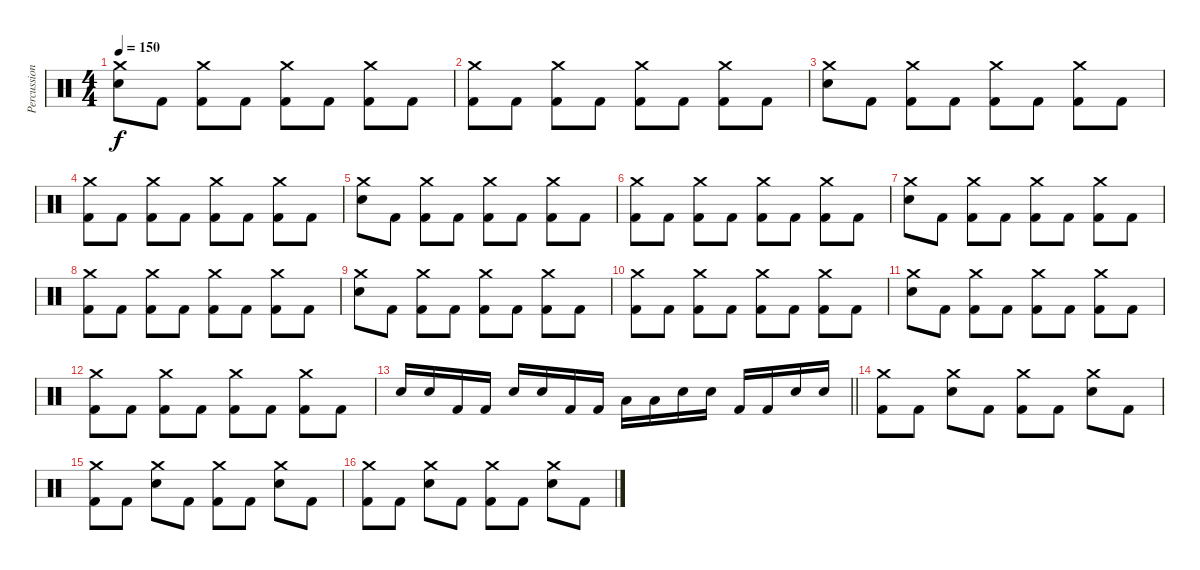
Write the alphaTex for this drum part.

\track ("Percussion" "Percussion") {instrument percussion}
\staff {score}
\articulation defaults
\ts (4 4)
\tempo 150
\clef neutral
\ks c
("Crash medium (hit)" "Electric Snare (hit)").8{dy f} "Kick (hit) 2".8 ("Crash medium (hit)" "Kick (hit) 2").8 "Kick (hit) 2".8 ("Crash medium (hit)" "Kick (hit) 2").8 "Kick (hit) 2".8 ("Crash medium (hit)" "Kick (hit) 2").8 "Kick (hit) 2".8 |
("Crash medium (hit)" "Kick (hit) 2").8 "Kick (hit) 2".8 ("Crash medium (hit)" "Kick (hit) 2").8 "Kick (hit) 2".8 ("Crash medium (hit)" "Kick (hit) 2").8 "Kick (hit) 2".8 ("Crash medium (hit)" "Kick (hit) 2").8 "Kick (hit) 2".8 |
("Crash medium (hit)" "Electric Snare (hit)").8 "Kick (hit) 2".8 ("Crash medium (hit)" "Kick (hit) 2").8 "Kick (hit) 2".8 ("Crash medium (hit)" "Kick (hit) 2").8 "Kick (hit) 2".8 ("Crash medium (hit)" "Kick (hit) 2").8 "Kick (hit) 2".8 |
("Crash medium (hit)" "Kick (hit) 2").8 "Kick (hit) 2".8 ("Crash medium (hit)" "Kick (hit) 2").8 "Kick (hit) 2".8 ("Crash medium (hit)" "Kick (hit) 2").8 "Kick (hit) 2".8 ("Crash medium (hit)" "Kick (hit) 2").8 "Kick (hit) 2".8 |
("Crash medium (hit)" "Electric Snare (hit)").8 "Kick (hit) 2".8 ("Crash medium (hit)" "Kick (hit) 2").8 "Kick (hit) 2".8 ("Crash medium (hit)" "Kick (hit) 2").8 "Kick (hit) 2".8 ("Crash medium (hit)" "Kick (hit) 2").8 "Kick (hit) 2".8 |
("Crash medium (hit)" "Kick (hit) 2").8 "Kick (hit) 2".8 ("Crash medium (hit)" "Kick (hit) 2").8 "Kick (hit) 2".8 ("Crash medium (hit)" "Kick (hit) 2").8 "Kick (hit) 2".8 ("Crash medium (hit)" "Kick (hit) 2").8 "Kick (hit) 2".8 |
("Crash medium (hit)" "Electric Snare (hit)").8 "Kick (hit) 2".8 ("Crash medium (hit)" "Kick (hit) 2").8 "Kick (hit) 2".8 ("Crash medium (hit)" "Kick (hit) 2").8 "Kick (hit) 2".8 ("Crash medium (hit)" "Kick (hit) 2").8 "Kick (hit) 2".8 |
("Crash medium (hit)" "Kick (hit) 2").8 "Kick (hit) 2".8 ("Crash medium (hit)" "Kick (hit) 2").8 "Kick (hit) 2".8 ("Crash medium (hit)" "Kick (hit) 2").8 "Kick (hit) 2".8 ("Crash medium (hit)" "Kick (hit) 2").8 "Kick (hit) 2".8 |
("Crash medium (hit)" "Electric Snare (hit)").8 "Kick (hit) 2".8 ("Crash medium (hit)" "Kick (hit) 2").8 "Kick (hit) 2".8 ("Crash medium (hit)" "Kick (hit) 2").8 "Kick (hit) 2".8 ("Crash medium (hit)" "Kick (hit) 2").8 "Kick (hit) 2".8 |
("Crash medium (hit)" "Kick (hit) 2").8 "Kick (hit) 2".8 ("Crash medium (hit)" "Kick (hit) 2").8 "Kick (hit) 2".8 ("Crash medium (hit)" "Kick (hit) 2").8 "Kick (hit) 2".8 ("Crash medium (hit)" "Kick (hit) 2").8 "Kick (hit) 2".8 |
("Crash medium (hit)" "Electric Snare (hit)").8 "Kick (hit) 2".8 ("Crash medium (hit)" "Kick (hit) 2").8 "Kick (hit) 2".8 ("Crash medium (hit)" "Kick (hit) 2").8 "Kick (hit) 2".8 ("Crash medium (hit)" "Kick (hit) 2").8 "Kick (hit) 2".8 |
("Crash medium (hit)" "Kick (hit) 2").8 "Kick (hit) 2".8 ("Crash medium (hit)" "Kick (hit) 2").8 "Kick (hit) 2".8 ("Crash medium (hit)" "Kick (hit) 2").8 "Kick (hit) 2".8 ("Crash medium (hit)" "Kick (hit) 2").8 "Kick (hit) 2".8 |
\barLineRight lightlight "Electric Snare (hit)".16 "Electric Snare (hit)".16 "Kick (hit) 2".16 "Kick (hit) 2".16 "Electric Snare (hit)".16 "Electric Snare (hit)".16 "Kick (hit) 2".16 "Kick (hit) 2".16 "Low Tom (hit)".16 "Low Tom (hit)".16 "Electric Snare (hit)".16 "Electric Snare (hit)".16 "Kick (hit) 2".16 "Kick (hit) 2".16 "Electric Snare (hit)".16 "Electric Snare (hit)".16
|
\section ("" "")
("Crash medium (hit)" "Kick (hit) 2").8 "Kick (hit) 2".8 ("Crash medium (hit)" "Electric Snare (hit)").8 "Kick (hit) 2".8 ("Crash medium (hit)" "Kick (hit) 2").8 "Kick (hit) 2".8 ("Crash medium (hit)" "Electric Snare (hit)").8 "Kick (hit) 2".8 |
("Crash medium (hit)" "Kick (hit) 2").8 "Kick (hit) 2".8 ("Crash medium (hit)" "Electric Snare (hit)").8 "Kick (hit) 2".8 ("Crash medium (hit)" "Kick (hit) 2").8 "Kick (hit) 2".8 ("Crash medium (hit)" "Electric Snare (hit)").8 "Kick (hit) 2".8 |
("Crash medium (hit)" "Kick (hit) 2").8 "Kick (hit) 2".8 ("Crash medium (hit)" "Electric Snare (hit)").8 "Kick (hit) 2".8 ("Crash medium (hit)" "Kick (hit) 2").8 "Kick (hit) 2".8 ("Crash medium (hit)" "Electric Snare (hit)").8 "Kick (hit) 2".8
